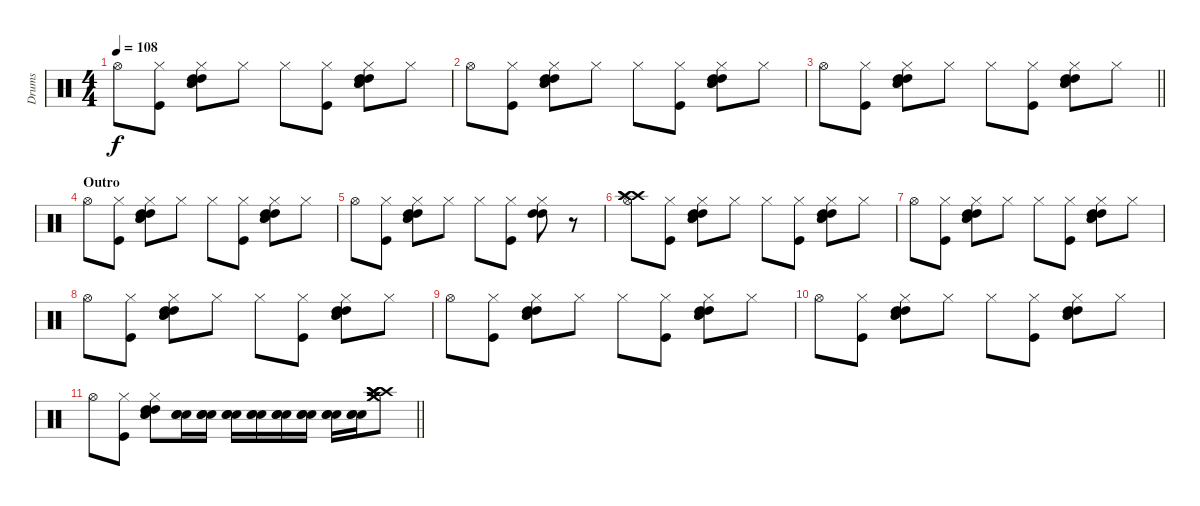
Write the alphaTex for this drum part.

\track ("Drums" "Drums") {instrument percussion}
\staff {score}
\articulation defaults
\ts (4 4)
\tempo 108
\clef neutral
\ks c "Hi-Hat (open)".8{dy f}
("Kick (hit)" "Hi-Hat (closed)").8 ("Snare (hit) 2" "Snare (hit) 2" "High Tom (hit)" "High Tom (hit)" "Hi-Hat (closed)").8 "Hi-Hat (closed)".8 "Hi-Hat (closed)".8 ("Kick (hit)" "Hi-Hat (closed)").8 ("Snare (hit) 2" "Snare (hit) 2" "High Tom (hit)" "High Tom (hit)" "Hi-Hat (closed)").8 "Hi-Hat (closed)".8 |
"Hi-Hat (open)".8 ("Kick (hit)" "Hi-Hat (closed)").8 ("Snare (hit) 2" "Snare (hit) 2" "High Tom (hit)" "High Tom (hit)" "Hi-Hat (closed)").8 "Hi-Hat (closed)".8 "Hi-Hat (closed)".8 ("Kick (hit)" "Hi-Hat (closed)").8 ("Snare (hit) 2" "Snare (hit) 2" "High Tom (hit)" "High Tom (hit)" "Hi-Hat (closed)").8 "Hi-Hat (closed)".8 |
\barLineRight lightlight "Hi-Hat (open)".8
("Kick (hit)" "Hi-Hat (closed)").8 ("Snare (hit) 2" "Snare (hit) 2" "High Tom (hit)" "High Tom (hit)" "Hi-Hat (closed)").8 "Hi-Hat (closed)".8 "Hi-Hat (closed)".8 ("Kick (hit)" "Hi-Hat (closed)").8 ("Snare (hit) 2" "Snare (hit) 2" "High Tom (hit)" "High Tom (hit)" "Hi-Hat (closed)").8 "Hi-Hat (closed)".8 |
\section ("" "Outro")
"Hi-Hat (open)".8 ("Kick (hit)" "Hi-Hat (closed)").8 ("Snare (hit) 2" "Snare (hit) 2" "High Tom (hit)" "High Tom (hit)" "Hi-Hat (closed)").8 "Hi-Hat (closed)".8 "Hi-Hat (closed)".8 ("Kick (hit)" "Hi-Hat (closed)").8 ("Snare (hit) 2" "Snare (hit) 2" "High Tom (hit)" "High Tom (hit)" "Hi-Hat (closed)").8 "Hi-Hat (closed)".8 |
"Hi-Hat (open)".8 ("Kick (hit)" "Hi-Hat (closed)").8 ("Snare (hit) 2" "Snare (hit) 2" "High Tom (hit)" "High Tom (hit)" "Hi-Hat (closed)").8 "Hi-Hat (closed)".8 "Hi-Hat (closed)".8 ("Kick (hit)" "Hi-Hat (closed)").8 ("High Tom (hit)" "High Tom (hit)" "Hi-Hat (closed)").8 r.8 |
("Crash high (hit)" "Crash high (hit)" "Crash high (hit)" "Hi-Hat (open)").8 ("Kick (hit)" "Hi-Hat (closed)").8 ("Snare (hit) 2" "Snare (hit) 2" "High Tom (hit)" "High Tom (hit)" "Hi-Hat (closed)").8 "Hi-Hat (closed)".8 "Hi-Hat (closed)".8 ("Kick (hit)" "Hi-Hat (closed)").8 ("Snare (hit) 2" "Snare (hit) 2" "High Tom (hit)" "High Tom (hit)" "Hi-Hat (closed)").8 "Hi-Hat (closed)".8 |
"Hi-Hat (open)".8 ("Kick (hit)" "Hi-Hat (closed)").8 ("Snare (hit) 2" "Snare (hit) 2" "High Tom (hit)" "High Tom (hit)" "Hi-Hat (closed)").8 "Hi-Hat (closed)".8 "Hi-Hat (closed)".8 ("Kick (hit)" "Hi-Hat (closed)").8 ("Snare (hit) 2" "Snare (hit) 2" "High Tom (hit)" "High Tom (hit)" "Hi-Hat (closed)").8 "Hi-Hat (closed)".8 |
"Hi-Hat (open)".8 ("Kick (hit)" "Hi-Hat (closed)").8 ("Snare (hit) 2" "Snare (hit) 2" "High Tom (hit)" "High Tom (hit)" "Hi-Hat (closed)").8 "Hi-Hat (closed)".8 "Hi-Hat (closed)".8 ("Kick (hit)" "Hi-Hat (closed)").8 ("Snare (hit) 2" "Snare (hit) 2" "High Tom (hit)" "High Tom (hit)" "Hi-Hat (closed)").8 "Hi-Hat (closed)".8 |
"Hi-Hat (open)".8 ("Kick (hit)" "Hi-Hat (closed)").8 ("Snare (hit) 2" "Snare (hit) 2" "High Tom (hit)" "High Tom (hit)" "Hi-Hat (closed)").8 "Hi-Hat (closed)".8 "Hi-Hat (closed)".8 ("Kick (hit)" "Hi-Hat (closed)").8 ("Snare (hit) 2" "Snare (hit) 2" "High Tom (hit)" "High Tom (hit)" "Hi-Hat (closed)").8 "Hi-Hat (closed)".8 |
"Hi-Hat (open)".8 ("Kick (hit)" "Hi-Hat (closed)").8 ("Snare (hit) 2" "Snare (hit) 2" "High Tom (hit)" "High Tom (hit)" "Hi-Hat (closed)").8 "Hi-Hat (closed)".8 "Hi-Hat (closed)".8 ("Kick (hit)" "Hi-Hat (closed)").8 ("Snare (hit) 2" "Snare (hit) 2" "High Tom (hit)" "High Tom (hit)" "Hi-Hat (closed)").8 "Hi-Hat (closed)".8 |
\barLineRight lightlight "Hi-Hat (open)".8
("Kick (hit)" "Hi-Hat (closed)").8 ("Snare (hit) 2" "Snare (hit) 2" "High Tom (hit)" "High Tom (hit)" "Hi-Hat (closed)").8 ("Snare (hit) 2" "Snare (hit) 2" "Snare (hit) 2").16 ("Snare (hit) 2" "Snare (hit) 2" "Snare (hit) 2").16 ("Snare (hit) 2" "Snare (hit) 2" "Snare (hit) 2").16 ("Snare (hit) 2" "Snare (hit) 2" "Snare (hit) 2").16 ("Snare (hit) 2" "Snare (hit) 2" "Snare (hit) 2").16 ("Snare (hit) 2" "Snare (hit) 2" "Snare (hit) 2").16 ("Snare (hit) 2" "Snare (hit) 2" "Snare (hit) 2").16 ("Snare (hit) 2" "Snare (hit) 2" "Snare (hit) 2").16 ("Crash high (hit)" "Crash high (hit)" "Crash high (hit)" "Crash high (hit)" "Crash medium (hit)" "Crash medium (hit)").8
